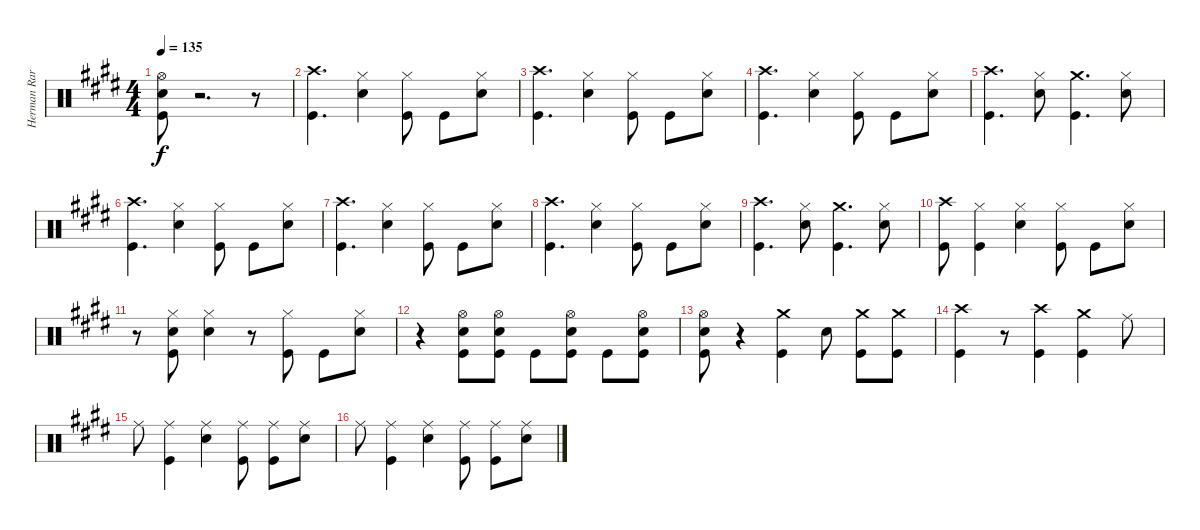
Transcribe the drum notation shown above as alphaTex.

\track ("Herman Rarebell Drums" "Herman Rar") {instrument percussion}
\staff {score}
\articulation defaults
\ts (4 4)
\tempo 135
\clef neutral
\ks e
("Hi-Hat (open)" "Snare (hit) 2" "Kick (hit)").8{dy f} r.2{d} r.8 |
("Crash high (hit)" "Kick (hit)").4{d} ("Hi-Hat (closed)" "Snare (hit) 2").4 ("Hi-Hat (closed)" "Kick (hit)").8 "Kick (hit)".8 ("Hi-Hat (closed)" "Snare (hit) 2").8 |
("Crash high (hit)" "Kick (hit)").4{d} ("Hi-Hat (closed)" "Snare (hit) 2").4 ("Hi-Hat (closed)" "Kick (hit)").8 "Kick (hit)".8 ("Hi-Hat (closed)" "Snare (hit) 2").8 |
("Crash high (hit)" "Kick (hit)").4{d} ("Hi-Hat (closed)" "Snare (hit) 2").4 ("Hi-Hat (closed)" "Kick (hit)").8 "Kick (hit)".8 ("Hi-Hat (closed)" "Snare (hit) 2").8 |
("Crash high (hit)" "Kick (hit)").4{d} ("Hi-Hat (closed)" "Snare (hit) 2").8 ("Crash medium (hit)" "Kick (hit)").4{d} ("Hi-Hat (closed)" "Snare (hit) 2").8 |
("Crash high (hit)" "Kick (hit)").4{d} ("Hi-Hat (closed)" "Snare (hit) 2").4 ("Hi-Hat (closed)" "Kick (hit)").8 "Kick (hit)".8 ("Hi-Hat (closed)" "Snare (hit) 2").8 |
("Crash high (hit)" "Kick (hit)").4{d} ("Hi-Hat (closed)" "Snare (hit) 2").4 ("Hi-Hat (closed)" "Kick (hit)").8 "Kick (hit)".8 ("Hi-Hat (closed)" "Snare (hit) 2").8 |
("Crash high (hit)" "Kick (hit)").4{d} ("Hi-Hat (closed)" "Snare (hit) 2").4 ("Hi-Hat (closed)" "Kick (hit)").8 "Kick (hit)".8 ("Hi-Hat (closed)" "Snare (hit) 2").8 |
("Crash high (hit)" "Kick (hit)").4{d} ("Hi-Hat (closed)" "Snare (hit) 2").8 ("Crash medium (hit)" "Kick (hit)").4{d} ("Hi-Hat (closed)" "Snare (hit) 2").8 |
("Crash high (hit)" "Kick (hit)").8 ("Hi-Hat (closed)" "Kick (hit)").4 ("Hi-Hat (closed)" "Snare (hit) 2").4 ("Hi-Hat (closed)" "Kick (hit)").8 "Kick (hit)".8 ("Hi-Hat (closed)" "Snare (hit) 2").8 |
r.8 ("Hi-Hat (closed)" "Snare (hit) 2" "Kick (hit)").8 ("Hi-Hat (closed)" "Snare (hit) 2").4 r.8 ("Hi-Hat (closed)" "Kick (hit)").8 "Kick (hit)".8 ("Hi-Hat (closed)" "Snare (hit) 2").8 |
r.4 ("Hi-Hat (open)" "Snare (hit) 2" "Kick (hit)").8 ("Hi-Hat (open)" "Snare (hit) 2" "Kick (hit)").8 "Kick (hit)".8 ("Hi-Hat (open)" "Snare (hit) 2" "Kick (hit)").8 "Kick (hit)".8 ("Hi-Hat (open)" "Snare (hit) 2" "Kick (hit)").8 |
("Hi-Hat (open)" "Snare (hit) 2" "Kick (hit)").8 r.4 ("Crash medium (hit)" "Kick (hit)").4 "Snare (hit) 2".8 ("Crash medium (hit)" "Kick (hit)").8 ("Crash medium (hit)" "Kick (hit)").8 |
("Crash high (hit)" "Kick (hit)").4 r.8 ("Crash high (hit)" "Kick (hit)").4 ("Crash medium (hit)" "Kick (hit)").4 "Ride (middle)".8 |
"Ride (middle)".8 ("Ride (middle)" "Kick (hit)").4 ("Ride (middle)" "Snare (hit) 2").4 ("Ride (middle)" "Kick (hit)").8 ("Ride (middle)" "Kick (hit)").8 ("Ride (middle)" "Snare (hit) 2").8 |
"Ride (middle)".8 ("Ride (middle)" "Kick (hit)").4 ("Ride (middle)" "Snare (hit) 2").4 ("Ride (middle)" "Kick (hit)").8 ("Ride (middle)" "Kick (hit)").8 ("Ride (middle)" "Snare (hit) 2").8
